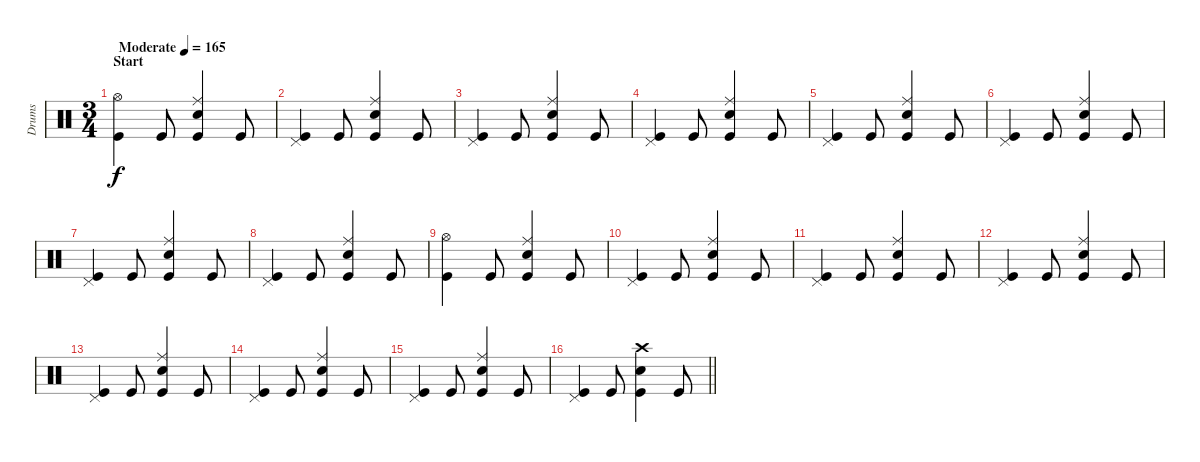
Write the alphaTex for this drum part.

\track ("Drums" "Drums") {instrument percussion}
\staff {score}
\articulation defaults
\ts (3 4)
\section ("" "Start")
\tempo (165 "Moderate")
\clef neutral
\ks c
("Hi-Hat (open)" "Kick (hit)").4{dy f} "Kick (hit)".8 ("Ride (middle)" "Snare (hit) 2" "Kick (hit)").4 "Kick (hit)".8 |
("Pedal Hi-Hat (hit)" "Kick (hit)").4 "Kick (hit)".8 ("Ride (middle)" "Snare (hit) 2" "Kick (hit)").4 "Kick (hit)".8 |
("Pedal Hi-Hat (hit)" "Kick (hit)").4 "Kick (hit)".8 ("Ride (middle)" "Snare (hit) 2" "Kick (hit)").4 "Kick (hit)".8 |
("Pedal Hi-Hat (hit)" "Kick (hit)").4 "Kick (hit)".8 ("Ride (middle)" "Snare (hit) 2" "Kick (hit)").4 "Kick (hit)".8 |
("Pedal Hi-Hat (hit)" "Kick (hit)").4 "Kick (hit)".8 ("Ride (middle)" "Snare (hit) 2" "Kick (hit)").4 "Kick (hit)".8 |
("Pedal Hi-Hat (hit)" "Kick (hit)").4 "Kick (hit)".8 ("Ride (middle)" "Snare (hit) 2" "Kick (hit)").4 "Kick (hit)".8 |
("Pedal Hi-Hat (hit)" "Kick (hit)").4 "Kick (hit)".8 ("Ride (middle)" "Snare (hit) 2" "Kick (hit)").4 "Kick (hit)".8 |
("Pedal Hi-Hat (hit)" "Kick (hit)").4 "Kick (hit)".8 ("Ride (middle)" "Snare (hit) 2" "Kick (hit)").4 "Kick (hit)".8 |
("Hi-Hat (open)" "Kick (hit)").4 "Kick (hit)".8 ("Ride (middle)" "Snare (hit) 2" "Kick (hit)").4 "Kick (hit)".8 |
("Pedal Hi-Hat (hit)" "Kick (hit)").4 "Kick (hit)".8 ("Ride (middle)" "Snare (hit) 2" "Kick (hit)").4 "Kick (hit)".8 |
("Pedal Hi-Hat (hit)" "Kick (hit)").4 "Kick (hit)".8 ("Ride (middle)" "Snare (hit) 2" "Kick (hit)").4 "Kick (hit)".8 |
("Pedal Hi-Hat (hit)" "Kick (hit)").4 "Kick (hit)".8 ("Ride (middle)" "Snare (hit) 2" "Kick (hit)").4 "Kick (hit)".8 |
("Pedal Hi-Hat (hit)" "Kick (hit)").4 "Kick (hit)".8 ("Ride (middle)" "Snare (hit) 2" "Kick (hit)").4 "Kick (hit)".8 |
("Pedal Hi-Hat (hit)" "Kick (hit)").4 "Kick (hit)".8 ("Ride (middle)" "Snare (hit) 2" "Kick (hit)").4 "Kick (hit)".8 |
("Pedal Hi-Hat (hit)" "Kick (hit)").4 "Kick (hit)".8 ("Ride (middle)" "Snare (hit) 2" "Kick (hit)").4 "Kick (hit)".8 |
\barLineRight lightlight
("Pedal Hi-Hat (hit)" "Kick (hit)").4 "Kick (hit)".8 ("Crash high (hit)" "Snare (hit) 2" "Kick (hit)").4 "Kick (hit)".8
